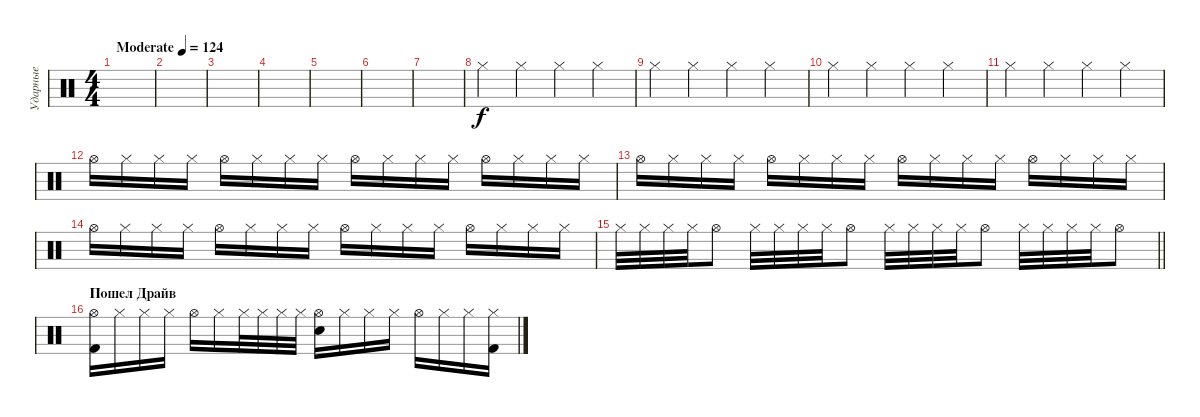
\track ("Ударные" "Ударные") {instrument percussion bank 127}
\staff
\articulation defaults
\ts (4 4)
\tempo (124 "Moderate")
\clef neutral
\ks c
|
|
|
|
|
|
|
"Hi-Hat (closed)".4 "Hi-Hat (closed)".4 "Hi-Hat (closed)".4 "Hi-Hat (closed)".4 |
"Hi-Hat (closed)".4 "Hi-Hat (closed)".4 "Hi-Hat (closed)".4 "Hi-Hat (closed)".4 |
"Hi-Hat (closed)".4 "Hi-Hat (closed)".4 "Hi-Hat (closed)".4 "Hi-Hat (closed)".4 |
"Hi-Hat (closed)".4 "Hi-Hat (closed)".4 "Hi-Hat (closed)".4 "Hi-Hat (closed)".4 |
"Hi-Hat (open)".16{dy f} "Hi-Hat (closed)".16 "Hi-Hat (closed)".16 "Hi-Hat (closed)".16 "Hi-Hat (open)".16 "Hi-Hat (closed)".16 "Hi-Hat (closed)".16 "Hi-Hat (closed)".16 "Hi-Hat (open)".16 "Hi-Hat (closed)".16 "Hi-Hat (closed)".16 "Hi-Hat (closed)".16 "Hi-Hat (open)".16 "Hi-Hat (closed)".16 "Hi-Hat (closed)".16 "Hi-Hat (closed)".16 |
"Hi-Hat (open)".16 "Hi-Hat (closed)".16 "Hi-Hat (closed)".16 "Hi-Hat (closed)".16 "Hi-Hat (open)".16 "Hi-Hat (closed)".16 "Hi-Hat (closed)".16 "Hi-Hat (closed)".16 "Hi-Hat (open)".16 "Hi-Hat (closed)".16 "Hi-Hat (closed)".16 "Hi-Hat (closed)".16 "Hi-Hat (open)".16 "Hi-Hat (closed)".16 "Hi-Hat (closed)".16 "Hi-Hat (closed)".16 |
"Hi-Hat (open)".16 "Hi-Hat (closed)".16 "Hi-Hat (closed)".16 "Hi-Hat (closed)".16 "Hi-Hat (open)".16 "Hi-Hat (closed)".16 "Hi-Hat (closed)".16 "Hi-Hat (closed)".16 "Hi-Hat (open)".16 "Hi-Hat (closed)".16 "Hi-Hat (closed)".16 "Hi-Hat (closed)".16 "Hi-Hat (open)".16 "Hi-Hat (closed)".16 "Hi-Hat (closed)".16 "Hi-Hat (closed)".16 |
\barLineRight lightlight "Hi-Hat (closed)".32 "Hi-Hat (closed)".32 "Hi-Hat (closed)".32 "Hi-Hat (closed)".32 "Hi-Hat (open)".8 "Hi-Hat (closed)".32 "Hi-Hat (closed)".32 "Hi-Hat (closed)".32 "Hi-Hat (closed)".32 "Hi-Hat (open)".8 "Hi-Hat (closed)".32 "Hi-Hat (closed)".32 "Hi-Hat (closed)".32 "Hi-Hat (closed)".32 "Hi-Hat (open)".8 "Hi-Hat (closed)".32 "Hi-Hat (closed)".32 "Hi-Hat (closed)".32 "Hi-Hat (closed)".32 "Hi-Hat (open)".8
|
\section ("" "Пошел Драйв")
("Hi-Hat (open)" "Kick (hit) 2").16 "Hi-Hat (closed)".16 "Hi-Hat (closed)".16 "Hi-Hat (closed)".16 "Hi-Hat (open)".16 "Hi-Hat (closed)".16 "Hi-Hat (closed)".32 "Hi-Hat (closed)".32 "Hi-Hat (closed)".32 "Hi-Hat (closed)".32 ("Hi-Hat (open)" "Snare (hit) 2").16 "Hi-Hat (closed)".16 "Hi-Hat (closed)".16 "Hi-Hat (closed)".16 "Hi-Hat (open)".16 "Hi-Hat (closed)".16 "Hi-Hat (closed)".16 ("Hi-Hat (closed)" "Kick (hit) 2").16
